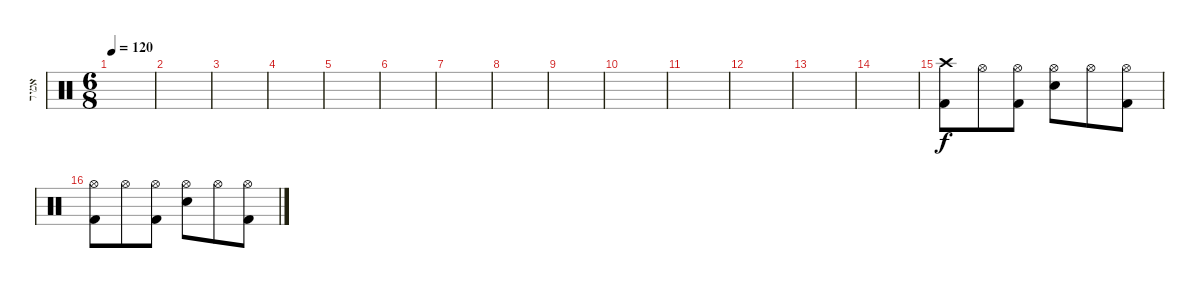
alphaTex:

\track ("אמיר" "אמיר") {instrument percussion}
\staff {score}
\articulation defaults
\ts (6 8)
\tempo 120
\clef neutral
\ks c
|
|
|
|
|
|
|
|
|
|
|
|
|
|
("Crash high (hit)" "Kick (hit) 2").8 "Hi-Hat (open)".8 ("Hi-Hat (open)" "Kick (hit) 2").8 ("Hi-Hat (open)" "Snare (hit) 2").8 "Hi-Hat (open)".8 ("Hi-Hat (open)" "Kick (hit) 2").8 |
("Hi-Hat (open)" "Kick (hit) 2").8 "Hi-Hat (open)".8 ("Hi-Hat (open)" "Kick (hit) 2").8 ("Hi-Hat (open)" "Snare (hit) 2").8 "Hi-Hat (open)".8 ("Hi-Hat (open)" "Kick (hit) 2").8
